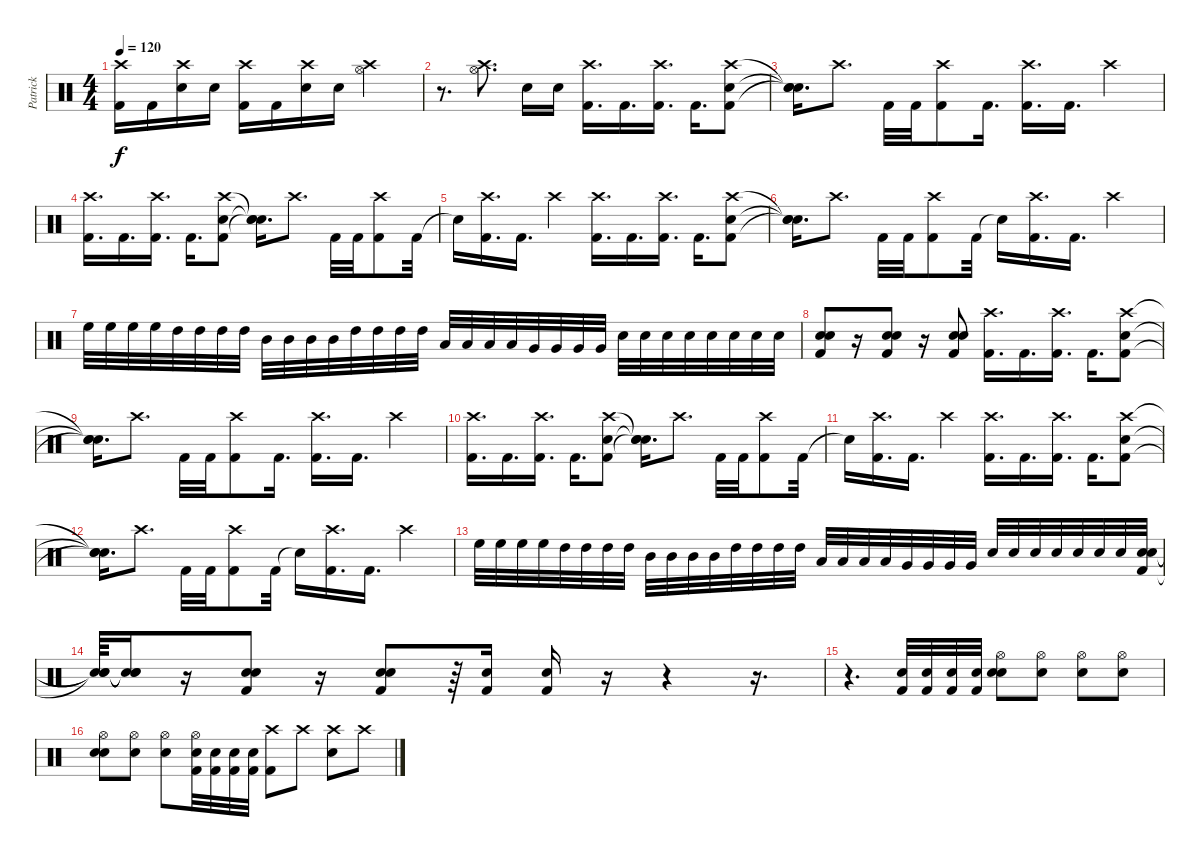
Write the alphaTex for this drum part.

\track ("Patrick" "Patrick") {instrument percussion}
\staff {score}
\articulation defaults
\ts (4 4)
\tempo 120
\clef neutral
\ks c
("Crash high (hit)" "Kick (hit) 2").16{dy f} "Kick (hit) 2".16 ("Crash high (hit)" "Snare (hit) 2").16 "Snare (hit) 2".16 ("Crash high (hit)" "Kick (hit) 2").16 "Kick (hit) 2".16 ("Crash high (hit)" "Snare (hit) 2").16 "Snare (hit) 2".16 ("Hi-Hat (open)" "Crash high (hit)").2 |
r.8{d} ("Hi-Hat (open)" "Crash high (hit)").8{d} "Snare (hit) 2".16 "Snare (hit) 2".16 ("Crash high (hit)" "Kick (hit) 2").16{d} "Kick (hit) 2".16{d} ("Crash high (hit)" "Kick (hit) 2").16{d} "Kick (hit) 2".16{d} ("Snare (hit) 2" "Kick (hit) 2" "Crash high (hit)").8 |
("Snare (hit) 2"{t} "Snare (hit)"{t} "Snare (hit)"{t}).16{d} "Crash high (hit)".8{d} "Kick (hit) 2".32 "Kick (hit) 2".32 ("Crash high (hit)" "Kick (hit) 2").8 "Kick (hit) 2".16{d} ("Crash high (hit)" "Kick (hit) 2").16{d} "Kick (hit) 2".16{d} "Crash high (hit)".4 |
("Crash high (hit)" "Kick (hit) 2").16{d} "Kick (hit) 2".16{d} ("Crash high (hit)" "Kick (hit) 2").16{d} "Kick (hit) 2".16{d} ("Snare (hit) 2" "Kick (hit) 2" "Crash high (hit)").8 ("Snare (hit) 2"{t} "Snare (hit)"{t} "Snare (hit)"{t}).16{d} "Crash high (hit)".8{d} "Kick (hit) 2".32 "Kick (hit) 2".32 ("Crash high (hit)" "Kick (hit) 2").8 "Kick (hit) 2".32 |
"Snare (hit)"{t}.16 ("Crash high (hit)" "Kick (hit) 2").16{d} "Kick (hit) 2".16{d} "Crash high (hit)".4 ("Crash high (hit)" "Kick (hit) 2").16{d} "Kick (hit) 2".16{d} ("Crash high (hit)" "Kick (hit) 2").16{d} "Kick (hit) 2".16{d} ("Snare (hit) 2" "Kick (hit) 2" "Crash high (hit)").8 |
("Snare (hit) 2"{t} "Snare (hit)"{t} "Snare (hit)"{t}).16{d} "Crash high (hit)".8{d} "Kick (hit) 2".32 "Kick (hit) 2".32 ("Crash high (hit)" "Kick (hit) 2").8 "Kick (hit) 2".32 "Snare (hit)"{t}.16 ("Crash high (hit)" "Kick (hit) 2").16{d} "Kick (hit) 2".16{d} "Crash high (hit)".4 |
"High Floor Tom (hit)".32 "High Floor Tom (hit)".32 "High Floor Tom (hit)".32 "High Floor Tom (hit)".32 "High Tom (hit)".32 "High Tom (hit)".32 "High Tom (hit)".32 "High Tom (hit)".32 "Mid Tom (hit)".32 "Mid Tom (hit)".32 "Mid Tom (hit)".32 "Mid Tom (hit)".32 "High Tom (hit)".32 "High Tom (hit)".32 "High Tom (hit)".32 "High Tom (hit)".32 "Low Tom (hit)".32 "Low Tom (hit)".32 "Low Tom (hit)".32 "Low Tom (hit)".32 "Very Low Tom (hit)".32 "Very Low Tom (hit)".32 "Very Low Tom (hit)".32 "Very Low Tom (hit)".32 "Electric Snare (hit)".32 "Electric Snare (hit)".32 "Electric Snare (hit)".32 "Electric Snare (hit)".32 "Snare (hit) 2".32 "Snare (hit) 2".32 "Snare (hit) 2".32 "Snare (hit) 2".32 |
("Kick (hit) 2" "Snare (hit) 2" "Electric Snare (hit)").8 r.16 ("Kick (hit) 2" "Snare (hit) 2" "Electric Snare (hit)").8 r.16 ("Kick (hit) 2" "Snare (hit) 2" "Electric Snare (hit)").8 ("Crash high (hit)" "Kick (hit) 2").16{d} "Kick (hit) 2".16{d} ("Crash high (hit)" "Kick (hit) 2").16{d} "Kick (hit) 2".16{d} ("Snare (hit) 2" "Kick (hit) 2" "Crash high (hit)").8 |
("Snare (hit) 2"{t} "Snare (hit)"{t} "Snare (hit)"{t}).16{d} "Crash high (hit)".8{d} "Kick (hit) 2".32 "Kick (hit) 2".32 ("Crash high (hit)" "Kick (hit) 2").8 "Kick (hit) 2".16{d} ("Crash high (hit)" "Kick (hit) 2").16{d} "Kick (hit) 2".16{d} "Crash high (hit)".4 |
("Crash high (hit)" "Kick (hit) 2").16{d} "Kick (hit) 2".16{d} ("Crash high (hit)" "Kick (hit) 2").16{d} "Kick (hit) 2".16{d} ("Snare (hit) 2" "Kick (hit) 2" "Crash high (hit)").8 ("Snare (hit) 2"{t} "Snare (hit)"{t} "Snare (hit)"{t}).16{d} "Crash high (hit)".8{d} "Kick (hit) 2".32 "Kick (hit) 2".32 ("Crash high (hit)" "Kick (hit) 2").8 "Kick (hit) 2".32 |
"Snare (hit)"{t}.16 ("Crash high (hit)" "Kick (hit) 2").16{d} "Kick (hit) 2".16{d} "Crash high (hit)".4 ("Crash high (hit)" "Kick (hit) 2").16{d} "Kick (hit) 2".16{d} ("Crash high (hit)" "Kick (hit) 2").16{d} "Kick (hit) 2".16{d} ("Snare (hit) 2" "Kick (hit) 2" "Crash high (hit)").8 |
("Snare (hit) 2"{t} "Snare (hit)"{t} "Snare (hit)"{t}).16{d} "Crash high (hit)".8{d} "Kick (hit) 2".32 "Kick (hit) 2".32 ("Crash high (hit)" "Kick (hit) 2").8 "Kick (hit) 2".32 "Snare (hit)"{t}.16 ("Crash high (hit)" "Kick (hit) 2").16{d} "Kick (hit) 2".16{d} "Crash high (hit)".4 |
"High Floor Tom (hit)".32 "High Floor Tom (hit)".32 "High Floor Tom (hit)".32 "High Floor Tom (hit)".32 "High Tom (hit)".32 "High Tom (hit)".32 "High Tom (hit)".32 "High Tom (hit)".32 "Mid Tom (hit)".32 "Mid Tom (hit)".32 "Mid Tom (hit)".32 "Mid Tom (hit)".32 "High Tom (hit)".32 "High Tom (hit)".32 "High Tom (hit)".32 "High Tom (hit)".32 "Low Tom (hit)".32 "Low Tom (hit)".32 "Low Tom (hit)".32 "Low Tom (hit)".32 "Very Low Tom (hit)".32 "Very Low Tom (hit)".32 "Very Low Tom (hit)".32 "Very Low Tom (hit)".32 "Electric Snare (hit)".32 "Electric Snare (hit)".32 "Electric Snare (hit)".32 "Electric Snare (hit)".32 "Snare (hit) 2".32 "Snare (hit) 2".32 "Snare (hit) 2".32 ("Kick (hit) 2" "Snare (hit) 2" "Electric Snare (hit)").32 |
("Snare (hit)"{t} "Snare (hit)"{t} "Snare (hit)"{t}).64 ("Snare (hit)"{t} "Snare (hit)"{t} "Snare (hit)"{t}).16 r.16 ("Kick (hit) 2" "Snare (hit) 2" "Electric Snare (hit)").8 r.16 ("Kick (hit) 2" "Snare (hit) 2" "Electric Snare (hit)").8 r.64 ("Kick (hit) 2" "Electric Snare (hit)").16 ("Kick (hit) 2" "Electric Snare (hit)").16 r.16 r.4 r.16{d} |
r.4{d} ("Kick (hit) 2" "Electric Snare (hit)").32 ("Kick (hit) 2" "Electric Snare (hit)").32 ("Kick (hit) 2" "Electric Snare (hit)").32 ("Kick (hit) 2" "Electric Snare (hit)").32 ("Hi-Hat (open)" "Snare (hit) 2" "Electric Snare (hit)").8 ("Hi-Hat (open)" "Snare (hit) 2").8 ("Hi-Hat (open)" "Snare (hit) 2").8 ("Hi-Hat (open)" "Snare (hit) 2").8 |
("Hi-Hat (open)" "Snare (hit) 2" "Electric Snare (hit)").8 ("Hi-Hat (open)" "Snare (hit) 2").8 ("Hi-Hat (open)" "Snare (hit) 2").8 ("Kick (hit) 2" "Electric Snare (hit)" "Hi-Hat (open)").32 ("Kick (hit) 2" "Electric Snare (hit)").32 ("Kick (hit) 2" "Electric Snare (hit)").32 ("Kick (hit) 2" "Electric Snare (hit)").32 ("Crash high (hit)" "Kick (hit) 2").8 "Crash high (hit)".8 ("Crash high (hit)" "Snare (hit) 2").8 "Crash high (hit)".8
